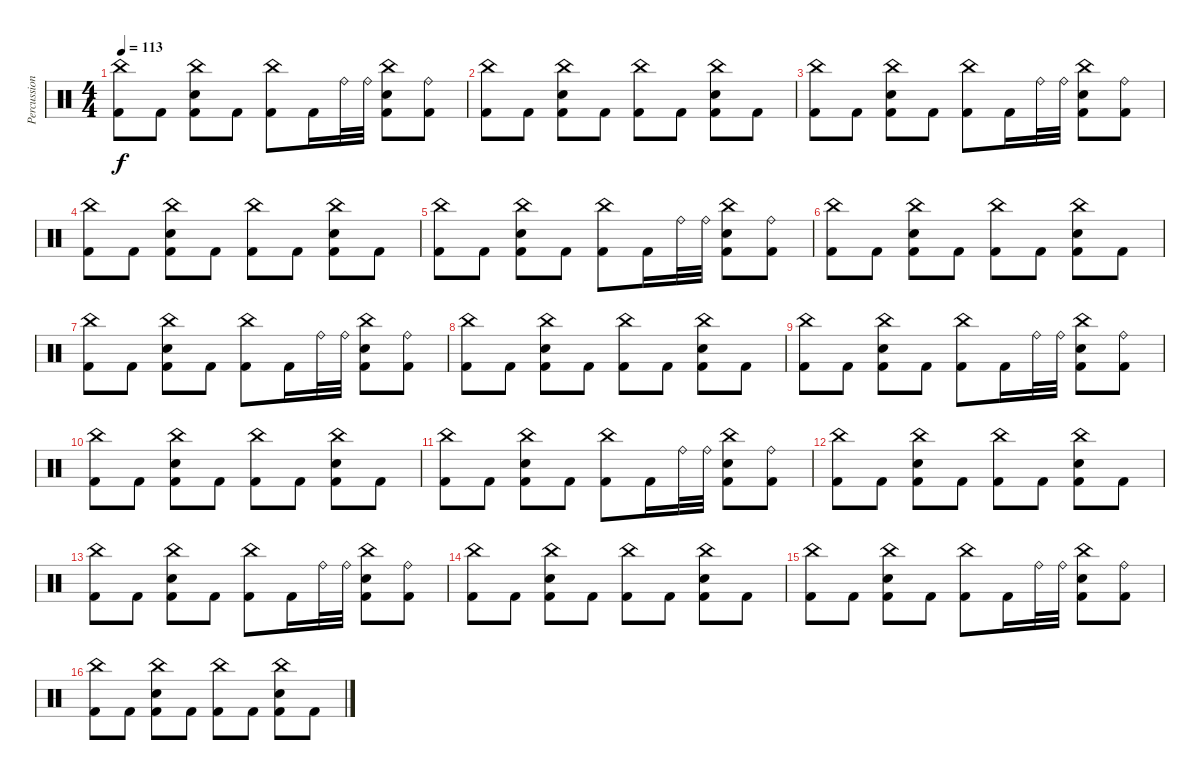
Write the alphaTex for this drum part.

\track ("Percussion" "Percussion") {instrument percussion}
\staff {score}
\articulation defaults
\ts (4 4)
\tempo 113
\clef neutral
\ks c
("China (hit)" "Kick (hit) 2").8{dy f} "Kick (hit) 2".8 ("China (hit)" "Electric Snare (hit)" "Kick (hit) 2").8 "Kick (hit) 2".8 ("China (hit)" "Kick (hit) 2").8 "Kick (hit) 2".16 "Ride (bell)".32 "Ride (bell)".32 ("China (hit)" "Electric Snare (hit)" "Kick (hit) 2").8 ("Ride (bell)" "Kick (hit) 2").8 |
("China (hit)" "Kick (hit) 2").8 "Kick (hit) 2".8 ("China (hit)" "Electric Snare (hit)" "Kick (hit) 2").8 "Kick (hit) 2".8 ("China (hit)" "Kick (hit) 2").8 "Kick (hit) 2".8 ("China (hit)" "Electric Snare (hit)" "Kick (hit) 2").8 "Kick (hit) 2".8 |
("China (hit)" "Kick (hit) 2").8 "Kick (hit) 2".8 ("China (hit)" "Electric Snare (hit)" "Kick (hit) 2").8 "Kick (hit) 2".8 ("China (hit)" "Kick (hit) 2").8 "Kick (hit) 2".16 "Ride (bell)".32 "Ride (bell)".32 ("China (hit)" "Electric Snare (hit)" "Kick (hit) 2").8 ("Ride (bell)" "Kick (hit) 2").8 |
("China (hit)" "Kick (hit) 2").8 "Kick (hit) 2".8 ("China (hit)" "Electric Snare (hit)" "Kick (hit) 2").8 "Kick (hit) 2".8 ("China (hit)" "Kick (hit) 2").8 "Kick (hit) 2".8 ("China (hit)" "Electric Snare (hit)" "Kick (hit) 2").8 "Kick (hit) 2".8 |
("China (hit)" "Kick (hit) 2").8 "Kick (hit) 2".8 ("China (hit)" "Electric Snare (hit)" "Kick (hit) 2").8 "Kick (hit) 2".8 ("China (hit)" "Kick (hit) 2").8 "Kick (hit) 2".16 "Ride (bell)".32 "Ride (bell)".32 ("China (hit)" "Electric Snare (hit)" "Kick (hit) 2").8 ("Ride (bell)" "Kick (hit) 2").8 |
("China (hit)" "Kick (hit) 2").8 "Kick (hit) 2".8 ("China (hit)" "Electric Snare (hit)" "Kick (hit) 2").8 "Kick (hit) 2".8 ("China (hit)" "Kick (hit) 2").8 "Kick (hit) 2".8 ("China (hit)" "Electric Snare (hit)" "Kick (hit) 2").8 "Kick (hit) 2".8 |
("China (hit)" "Kick (hit) 2").8 "Kick (hit) 2".8 ("China (hit)" "Electric Snare (hit)" "Kick (hit) 2").8 "Kick (hit) 2".8 ("China (hit)" "Kick (hit) 2").8 "Kick (hit) 2".16 "Ride (bell)".32 "Ride (bell)".32 ("China (hit)" "Electric Snare (hit)" "Kick (hit) 2").8 ("Ride (bell)" "Kick (hit) 2").8 |
("China (hit)" "Kick (hit) 2").8 "Kick (hit) 2".8 ("China (hit)" "Electric Snare (hit)" "Kick (hit) 2").8 "Kick (hit) 2".8 ("China (hit)" "Kick (hit) 2").8 "Kick (hit) 2".8 ("China (hit)" "Electric Snare (hit)" "Kick (hit) 2").8 "Kick (hit) 2".8 |
("China (hit)" "Kick (hit) 2").8 "Kick (hit) 2".8 ("China (hit)" "Electric Snare (hit)" "Kick (hit) 2").8 "Kick (hit) 2".8 ("China (hit)" "Kick (hit) 2").8 "Kick (hit) 2".16 "Ride (bell)".32 "Ride (bell)".32 ("China (hit)" "Electric Snare (hit)" "Kick (hit) 2").8 ("Ride (bell)" "Kick (hit) 2").8 |
("China (hit)" "Kick (hit) 2").8 "Kick (hit) 2".8 ("China (hit)" "Electric Snare (hit)" "Kick (hit) 2").8 "Kick (hit) 2".8 ("China (hit)" "Kick (hit) 2").8 "Kick (hit) 2".8 ("China (hit)" "Electric Snare (hit)" "Kick (hit) 2").8 "Kick (hit) 2".8 |
("China (hit)" "Kick (hit) 2").8 "Kick (hit) 2".8 ("China (hit)" "Electric Snare (hit)" "Kick (hit) 2").8 "Kick (hit) 2".8 ("China (hit)" "Kick (hit) 2").8 "Kick (hit) 2".16 "Ride (bell)".32 "Ride (bell)".32 ("China (hit)" "Electric Snare (hit)" "Kick (hit) 2").8 ("Ride (bell)" "Kick (hit) 2").8 |
("China (hit)" "Kick (hit) 2").8 "Kick (hit) 2".8 ("China (hit)" "Electric Snare (hit)" "Kick (hit) 2").8 "Kick (hit) 2".8 ("China (hit)" "Kick (hit) 2").8 "Kick (hit) 2".8 ("China (hit)" "Electric Snare (hit)" "Kick (hit) 2").8 "Kick (hit) 2".8 |
("China (hit)" "Kick (hit) 2").8 "Kick (hit) 2".8 ("China (hit)" "Electric Snare (hit)" "Kick (hit) 2").8 "Kick (hit) 2".8 ("China (hit)" "Kick (hit) 2").8 "Kick (hit) 2".16 "Ride (bell)".32 "Ride (bell)".32 ("China (hit)" "Electric Snare (hit)" "Kick (hit) 2").8 ("Ride (bell)" "Kick (hit) 2").8 |
("China (hit)" "Kick (hit) 2").8 "Kick (hit) 2".8 ("China (hit)" "Electric Snare (hit)" "Kick (hit) 2").8 "Kick (hit) 2".8 ("China (hit)" "Kick (hit) 2").8 "Kick (hit) 2".8 ("China (hit)" "Electric Snare (hit)" "Kick (hit) 2").8 "Kick (hit) 2".8 |
("China (hit)" "Kick (hit) 2").8 "Kick (hit) 2".8 ("China (hit)" "Electric Snare (hit)" "Kick (hit) 2").8 "Kick (hit) 2".8 ("China (hit)" "Kick (hit) 2").8 "Kick (hit) 2".16 "Ride (bell)".32 "Ride (bell)".32 ("China (hit)" "Electric Snare (hit)" "Kick (hit) 2").8 ("Ride (bell)" "Kick (hit) 2").8 |
("China (hit)" "Kick (hit) 2").8 "Kick (hit) 2".8 ("China (hit)" "Electric Snare (hit)" "Kick (hit) 2").8 "Kick (hit) 2".8 ("China (hit)" "Kick (hit) 2").8 "Kick (hit) 2".8 ("China (hit)" "Electric Snare (hit)" "Kick (hit) 2").8 "Kick (hit) 2".8
